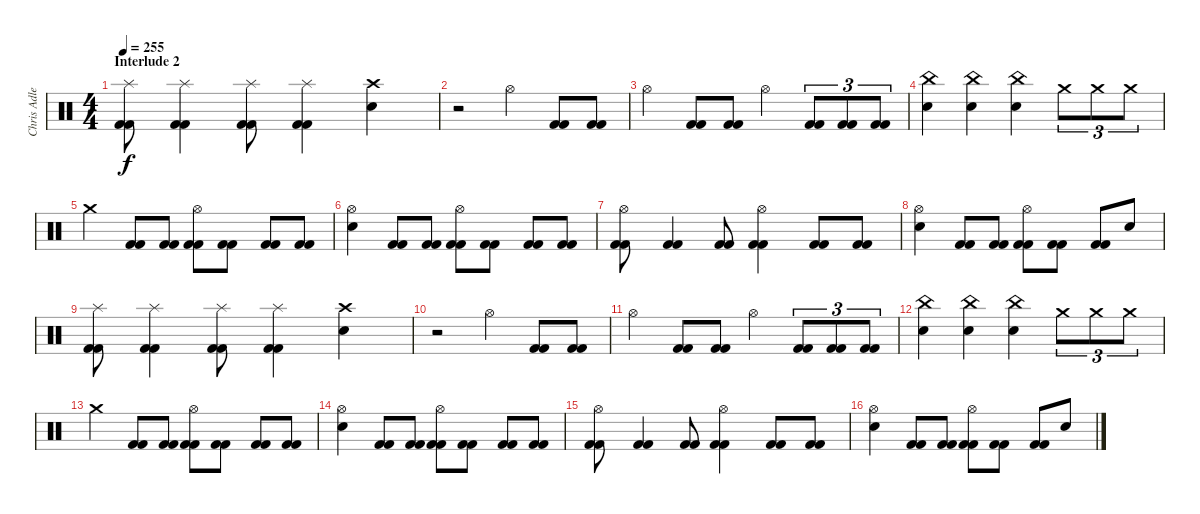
\track ("Chris Adler" "Chris Adle") {instrument percussion}
\staff {score}
\articulation defaults
\ts (4 4)
\section ("" "Interlude 2")
\tempo 255
\clef neutral
\ks c
("Splash (hit)" "Kick (hit) 2" "Kick (hit) 2").8{dy f} ("Splash (hit)" "Kick (hit) 2" "Kick (hit) 2").4 ("Splash (hit)" "Kick (hit) 2" "Kick (hit) 2").8 ("Splash (hit)" "Kick (hit) 2" "Kick (hit) 2").4 ("Crash high (hit)" "Electric Snare (hit)").4 |
r.2 "Hi-Hat (open)".4 ("Kick (hit) 2" "Kick (hit) 2").8 ("Kick (hit) 2" "Kick (hit) 2").8 |
"Hi-Hat (open)".4 ("Kick (hit) 2" "Kick (hit) 2").8 ("Kick (hit) 2" "Kick (hit) 2").8 "Hi-Hat (open)".4 ("Kick (hit) 2" "Kick (hit) 2").8{tu (3 2)} ("Kick (hit) 2" "Kick (hit) 2").8{tu (3 2)} ("Kick (hit) 2" "Kick (hit) 2").8{tu (3 2)} |
("China (hit)" "Electric Snare (hit)").4 ("China (hit)" "Electric Snare (hit)").4 ("China (hit)" "Electric Snare (hit)").4 "Crash medium (hit)".8{tu (3 2)} "Crash medium (hit)".8{tu (3 2)} "Crash medium (hit)".8{tu (3 2)} |
"Crash medium (hit)".4 ("Kick (hit) 2" "Kick (hit) 2").8 ("Kick (hit) 2" "Kick (hit) 2").8 ("Hi-Hat (open)" "Kick (hit) 2" "Kick (hit) 2").8 ("Kick (hit) 2" "Kick (hit) 2").8 ("Kick (hit) 2" "Kick (hit) 2").8 ("Kick (hit) 2" "Kick (hit) 2").8 |
("Hi-Hat (open)" "Electric Snare (hit)").4 ("Kick (hit) 2" "Kick (hit) 2").8 ("Kick (hit) 2" "Kick (hit) 2").8 ("Hi-Hat (open)" "Kick (hit) 2" "Kick (hit) 2").8 ("Kick (hit) 2" "Kick (hit) 2").8 ("Kick (hit) 2" "Kick (hit) 2").8 ("Kick (hit) 2" "Kick (hit) 2").8 |
("Hi-Hat (open)" "Kick (hit) 2" "Kick (hit) 2").8 ("Kick (hit) 2" "Kick (hit) 2").4 ("Kick (hit) 2" "Kick (hit) 2").8 ("Hi-Hat (open)" "Kick (hit) 2" "Kick (hit) 2").4 ("Kick (hit) 2" "Kick (hit) 2").8 ("Kick (hit) 2" "Kick (hit) 2").8 |
("Hi-Hat (open)" "Electric Snare (hit)").4 ("Kick (hit) 2" "Kick (hit) 2").8 ("Kick (hit) 2" "Kick (hit) 2").8 ("Hi-Hat (open)" "Kick (hit) 2" "Kick (hit) 2").8 ("Kick (hit) 2" "Kick (hit) 2").8 ("Kick (hit) 2" "Kick (hit) 2").8 "Electric Snare (hit)".8 |
("Splash (hit)" "Kick (hit) 2" "Kick (hit) 2").8 ("Splash (hit)" "Kick (hit) 2" "Kick (hit) 2").4 ("Splash (hit)" "Kick (hit) 2" "Kick (hit) 2").8 ("Splash (hit)" "Kick (hit) 2" "Kick (hit) 2").4 ("Crash high (hit)" "Electric Snare (hit)").4 |
r.2 "Hi-Hat (open)".4 ("Kick (hit) 2" "Kick (hit) 2").8 ("Kick (hit) 2" "Kick (hit) 2").8 |
"Hi-Hat (open)".4 ("Kick (hit) 2" "Kick (hit) 2").8 ("Kick (hit) 2" "Kick (hit) 2").8 "Hi-Hat (open)".4 ("Kick (hit) 2" "Kick (hit) 2").8{tu (3 2)} ("Kick (hit) 2" "Kick (hit) 2").8{tu (3 2)} ("Kick (hit) 2" "Kick (hit) 2").8{tu (3 2)} |
("China (hit)" "Electric Snare (hit)").4 ("China (hit)" "Electric Snare (hit)").4 ("China (hit)" "Electric Snare (hit)").4 "Crash medium (hit)".8{tu (3 2)} "Crash medium (hit)".8{tu (3 2)} "Crash medium (hit)".8{tu (3 2)} |
"Crash medium (hit)".4 ("Kick (hit) 2" "Kick (hit) 2").8 ("Kick (hit) 2" "Kick (hit) 2").8 ("Hi-Hat (open)" "Kick (hit) 2" "Kick (hit) 2").8 ("Kick (hit) 2" "Kick (hit) 2").8 ("Kick (hit) 2" "Kick (hit) 2").8 ("Kick (hit) 2" "Kick (hit) 2").8 |
("Hi-Hat (open)" "Electric Snare (hit)").4 ("Kick (hit) 2" "Kick (hit) 2").8 ("Kick (hit) 2" "Kick (hit) 2").8 ("Hi-Hat (open)" "Kick (hit) 2" "Kick (hit) 2").8 ("Kick (hit) 2" "Kick (hit) 2").8 ("Kick (hit) 2" "Kick (hit) 2").8 ("Kick (hit) 2" "Kick (hit) 2").8 |
("Hi-Hat (open)" "Kick (hit) 2" "Kick (hit) 2").8 ("Kick (hit) 2" "Kick (hit) 2").4 ("Kick (hit) 2" "Kick (hit) 2").8 ("Hi-Hat (open)" "Kick (hit) 2" "Kick (hit) 2").4 ("Kick (hit) 2" "Kick (hit) 2").8 ("Kick (hit) 2" "Kick (hit) 2").8 |
("Hi-Hat (open)" "Electric Snare (hit)").4 ("Kick (hit) 2" "Kick (hit) 2").8 ("Kick (hit) 2" "Kick (hit) 2").8 ("Hi-Hat (open)" "Kick (hit) 2" "Kick (hit) 2").8 ("Kick (hit) 2" "Kick (hit) 2").8 ("Kick (hit) 2" "Kick (hit) 2").8 "Electric Snare (hit)".8
